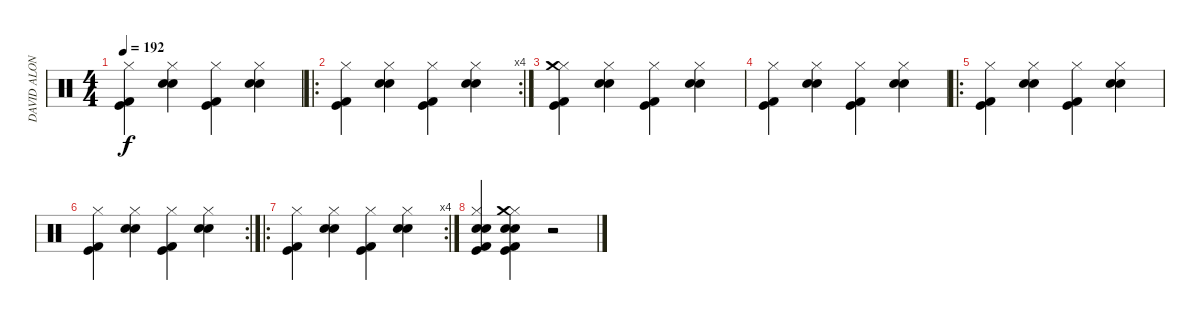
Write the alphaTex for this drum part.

\track ("DAVID ALONSO" "DAVID ALON") {instrument percussion}
\staff {score}
\articulation defaults
\ts (4 4)
\tempo 192
\clef neutral
\ks c
("Kick (hit)" "Kick (hit) 2" "Hi-Hat (closed)").4{dy f} ("Electric Snare (hit)" "Snare (hit) 2" "Hi-Hat (closed)").4 ("Kick (hit)" "Kick (hit) 2" "Hi-Hat (closed)").4 ("Electric Snare (hit)" "Snare (hit) 2" "Hi-Hat (closed)").4 |
\ro
\rc 4
("Kick (hit)" "Kick (hit) 2" "Hi-Hat (closed)").4 ("Electric Snare (hit)" "Snare (hit) 2" "Hi-Hat (closed)").4 ("Kick (hit)" "Kick (hit) 2" "Hi-Hat (closed)").4 ("Electric Snare (hit)" "Snare (hit) 2" "Hi-Hat (closed)").4 |
("Kick (hit)" "Kick (hit) 2" "Hi-Hat (closed)" "Crash medium (hit)").4 ("Electric Snare (hit)" "Snare (hit) 2" "Hi-Hat (closed)").4 ("Kick (hit)" "Kick (hit) 2" "Hi-Hat (closed)").4 ("Electric Snare (hit)" "Snare (hit) 2" "Hi-Hat (closed)").4 |
("Kick (hit)" "Kick (hit) 2" "Hi-Hat (closed)").4 ("Electric Snare (hit)" "Snare (hit) 2" "Hi-Hat (closed)").4 ("Kick (hit)" "Kick (hit) 2" "Hi-Hat (closed)").4 ("Electric Snare (hit)" "Snare (hit) 2" "Hi-Hat (closed)").4 |
\ro
("Kick (hit)" "Kick (hit) 2" "Hi-Hat (closed)").4 ("Electric Snare (hit)" "Snare (hit) 2" "Hi-Hat (closed)").4 ("Kick (hit)" "Kick (hit) 2" "Hi-Hat (closed)").4 ("Electric Snare (hit)" "Snare (hit) 2" "Hi-Hat (closed)").4 |
\rc 2
("Kick (hit)" "Kick (hit) 2" "Hi-Hat (closed)").4 ("Electric Snare (hit)" "Snare (hit) 2" "Hi-Hat (closed)").4 ("Kick (hit)" "Kick (hit) 2" "Hi-Hat (closed)").4 ("Electric Snare (hit)" "Snare (hit) 2" "Hi-Hat (closed)").4 |
\ro
\rc 4
("Kick (hit)" "Kick (hit) 2" "Hi-Hat (closed)").4 ("Electric Snare (hit)" "Snare (hit) 2" "Hi-Hat (closed)").4 ("Kick (hit)" "Kick (hit) 2" "Hi-Hat (closed)").4 ("Electric Snare (hit)" "Snare (hit) 2" "Hi-Hat (closed)").4 |
("Kick (hit)" "Kick (hit) 2" "Hi-Hat (closed)" "Electric Snare (hit)" "Snare (hit) 2").4 ("Electric Snare (hit)" "Snare (hit) 2" "Hi-Hat (closed)" "Crash medium (hit)" "Kick (hit)" "Kick (hit) 2").4 r.2
